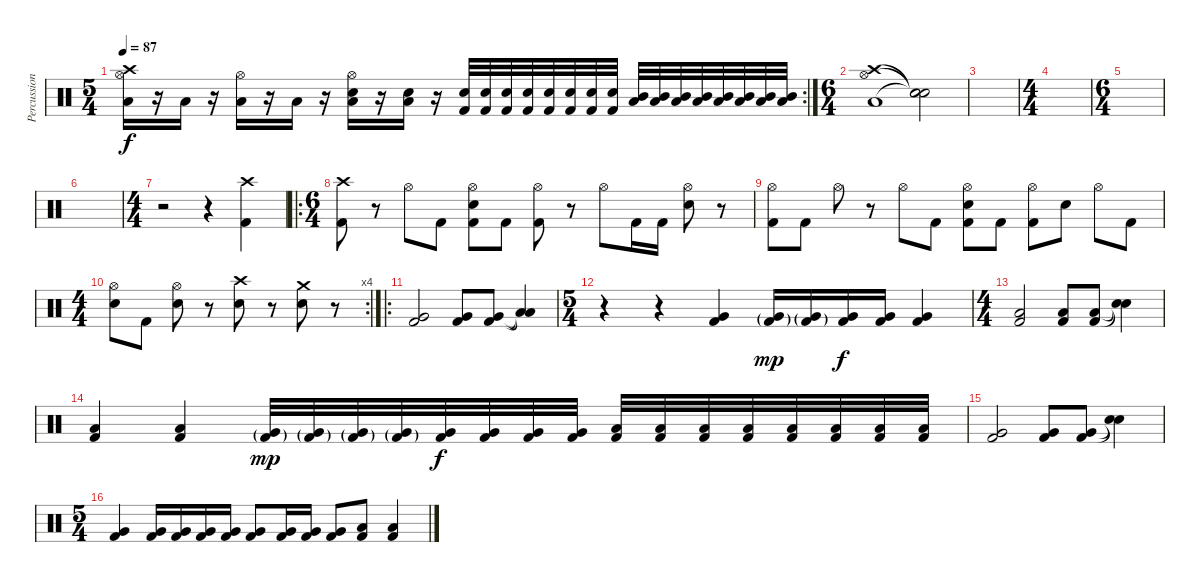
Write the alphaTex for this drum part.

\track ("Percussion" "Percussion") {instrument percussion}
\staff {score}
\articulation defaults
\rc 2
\ts (5 4)
\tempo 87
\clef neutral
\ks c
("Crash high (hit)" "Hi-Hat (open)" "Low Tom (hit)").16{dy f} r.16 "Low Tom (hit)".16 r.16 ("Hi-Hat (open)" "Low Tom (hit)").16 r.16 "Low Tom (hit)".16 r.16 ("Hi-Hat (open)" "Electric Snare (hit)" "Low Tom (hit)").16 r.16 ("Electric Snare (hit)" "Low Tom (hit)").16 r.16 ("Electric Snare (hit)" "Kick (hit) 2").32 ("Electric Snare (hit)" "Kick (hit) 2").32 ("Electric Snare (hit)" "Kick (hit) 2").32 ("Electric Snare (hit)" "Kick (hit) 2").32 ("Electric Snare (hit)" "Kick (hit) 2").32 ("Electric Snare (hit)" "Kick (hit) 2").32 ("Electric Snare (hit)" "Kick (hit) 2").32 ("Electric Snare (hit)" "Kick (hit) 2").32 ("Low Tom (hit)" "Mid Tom (hit)").32 ("Low Tom (hit)" "Mid Tom (hit)").32 ("Low Tom (hit)" "Mid Tom (hit)").32 ("Low Tom (hit)" "Mid Tom (hit)").32 ("Low Tom (hit)" "Mid Tom (hit)").32 ("Low Tom (hit)" "Mid Tom (hit)").32 ("Low Tom (hit)" "Mid Tom (hit)").32 ("Low Tom (hit)" "Mid Tom (hit)").32 |
\ts (6 4)
("Crash high (hit)" "Hi-Hat (open)" "Low Tom (hit)").1 ("Snare (hit)"{t} "Snare (hit)"{t} "Snare (hit)"{t}).2 |
|
\ts (4 4)
|
\ts (6 4)
|
|
\ts (4 4)
r.2 r.4 ("Crash high (hit)" "Kick (hit) 2").4 |
\ro
\ts (6 4)
("Crash high (hit)" "Kick (hit) 2").8 r.8 "Hi-Hat (open)".8 "Kick (hit) 2".8 ("Hi-Hat (open)" "Snare (hit) 2" "Kick (hit) 2").8 "Kick (hit) 2".8 ("Hi-Hat (open)" "Kick (hit) 2").8 r.8 "Hi-Hat (open)".8 "Kick (hit) 2".16 "Kick (hit) 2".16 ("Hi-Hat (open)" "Snare (hit) 2").8 r.8 |
("Hi-Hat (open)" "Kick (hit) 2").8 "Kick (hit) 2".8 "Hi-Hat (open)".8 r.8 "Hi-Hat (open)".8 "Kick (hit) 2".8 ("Hi-Hat (open)" "Snare (hit) 2" "Kick (hit) 2").8 "Kick (hit) 2".8 ("Hi-Hat (open)" "Kick (hit) 2").8 "Electric Snare (hit)".8 "Hi-Hat (open)".8 "Kick (hit) 2".8 |
\rc 4
\ts (4 4)
("Hi-Hat (open)" "Snare (hit) 2").8 "Kick (hit) 2".8 ("Hi-Hat (open)" "Snare (hit) 2").8 r.8 ("Crash high (hit)" "Snare (hit) 2").8 r.8 ("Crash medium (hit)" "Snare (hit) 2").8 r.8 |
\ro
("Very Low Tom (hit)" "Kick (hit) 2").2 ("Very Low Tom (hit)" "Kick (hit) 2").8 ("Very Low Tom (hit)" "Kick (hit) 2").8 ("Low Floor Tom (hit)"{t} "Low Tom (hit)"{t}).4 |
\ts (5 4)
r.4 r.4 ("Very Low Tom (hit)" "Kick (hit) 2").4 ("Very Low Tom (hit)"{g} "Kick (hit) 2"{g}).16{dy mp} ("Very Low Tom (hit)"{g} "Kick (hit) 2"{g}).16 ("Very Low Tom (hit)" "Kick (hit) 2").16{dy f} ("Very Low Tom (hit)" "Kick (hit) 2").16 ("Very Low Tom (hit)" "Kick (hit) 2").4 |
\ts (4 4)
("Low Floor Tom (hit)" "Kick (hit) 2").2 ("Low Floor Tom (hit)" "Kick (hit) 2").8 ("Low Floor Tom (hit)" "Kick (hit) 2").8 ("Snare (hit)"{t} "Snare (hit)"{t}).4 |
("Low Floor Tom (hit)" "Kick (hit) 2").4 ("Low Floor Tom (hit)" "Kick (hit) 2").4 ("Very Low Tom (hit)"{g} "Kick (hit) 2"{g}).32{dy mp} ("Very Low Tom (hit)"{g} "Kick (hit) 2"{g}).32 ("Very Low Tom (hit)"{g} "Kick (hit) 2"{g}).32 ("Very Low Tom (hit)"{g} "Kick (hit) 2"{g}).32 ("Very Low Tom (hit)" "Kick (hit) 2").32{dy f} ("Very Low Tom (hit)" "Kick (hit) 2").32 ("Very Low Tom (hit)" "Kick (hit) 2").32 ("Very Low Tom (hit)" "Kick (hit) 2").32 ("Low Floor Tom (hit)" "Kick (hit) 2").32 ("Low Floor Tom (hit)" "Kick (hit) 2").32 ("Low Floor Tom (hit)" "Kick (hit) 2").32 ("Low Floor Tom (hit)" "Kick (hit) 2").32 ("Low Floor Tom (hit)" "Kick (hit) 2").32 ("Low Floor Tom (hit)" "Kick (hit) 2").32 ("Low Floor Tom (hit)" "Kick (hit) 2").32 ("Low Floor Tom (hit)" "Kick (hit) 2").32 |
("Very Low Tom (hit)" "Kick (hit) 2").2 ("Very Low Tom (hit)" "Kick (hit) 2").8 ("Very Low Tom (hit)" "Kick (hit) 2").8 ("Snare (hit)"{t} "Snare (hit)"{t}).4 |
\ts (5 4)
("Very Low Tom (hit)" "Kick (hit) 2").4 ("Very Low Tom (hit)" "Kick (hit) 2").16 ("Very Low Tom (hit)" "Kick (hit) 2").16 ("Very Low Tom (hit)" "Kick (hit) 2").16 ("Very Low Tom (hit)" "Kick (hit) 2").16 ("Very Low Tom (hit)" "Kick (hit) 2").8 ("Very Low Tom (hit)" "Kick (hit) 2").16 ("Very Low Tom (hit)" "Kick (hit) 2").16 ("Very Low Tom (hit)" "Kick (hit) 2").8 ("Low Floor Tom (hit)" "Kick (hit) 2").8 ("Low Floor Tom (hit)" "Kick (hit) 2").4
